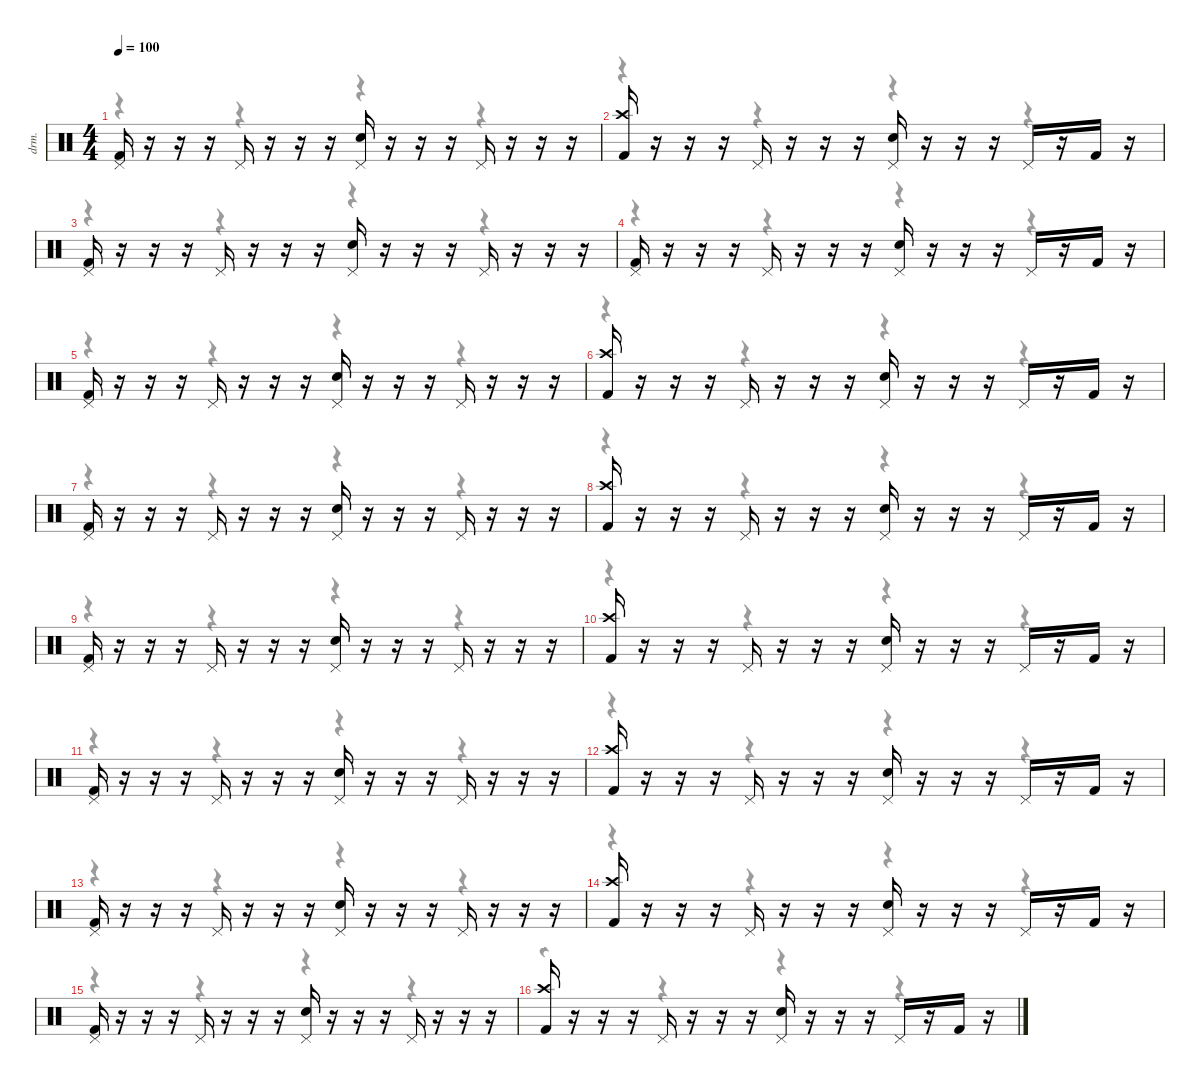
\defaultSystemsLayout 4
\hideDynamics
\bracketExtendMode nobrackets
\otherSystemsTrackNameOrientation horizontal
\track ("Drums" "drm.") {instrument percussion}
\staff {score}
\articulation defaults
\voice
\ts (4 4)
\tempo 100
\clef neutral
\ks c
("Kick (hit) 2" "Pedal Hi-Hat (hit)").16{dy ff} r.16 r.16 r.16 "Pedal Hi-Hat (hit)".16 r.16 r.16 r.16 ("Snare (hit) 2" "Pedal Hi-Hat (hit)").16 r.16 r.16 r.16 "Pedal Hi-Hat (hit)".16 r.16 r.16 r.16 |
("Kick (hit) 2" "Crash high (hit)").16 r.16 r.16 r.16 "Pedal Hi-Hat (hit)".16 r.16 r.16 r.16 ("Snare (hit) 2" "Pedal Hi-Hat (hit)").16 r.16 r.16 r.16 "Pedal Hi-Hat (hit)".16 r.16 "Kick (hit) 2".16{dy f} r.16 |
("Kick (hit) 2" "Pedal Hi-Hat (hit)").16{dy ff} r.16 r.16 r.16 "Pedal Hi-Hat (hit)".16 r.16 r.16 r.16 ("Snare (hit) 2" "Pedal Hi-Hat (hit)").16 r.16 r.16 r.16 "Pedal Hi-Hat (hit)".16 r.16 r.16 r.16 |
("Kick (hit) 2" "Pedal Hi-Hat (hit)").16 r.16 r.16 r.16 "Pedal Hi-Hat (hit)".16 r.16 r.16 r.16 ("Snare (hit) 2" "Pedal Hi-Hat (hit)").16 r.16 r.16 r.16 "Pedal Hi-Hat (hit)".16 r.16 "Kick (hit) 2".16{dy f} r.16 |
("Kick (hit) 2" "Pedal Hi-Hat (hit)").16{dy ff} r.16 r.16 r.16 "Pedal Hi-Hat (hit)".16 r.16 r.16 r.16 ("Snare (hit) 2" "Pedal Hi-Hat (hit)").16 r.16 r.16 r.16 "Pedal Hi-Hat (hit)".16 r.16 r.16 r.16 |
("Kick (hit) 2" "Crash high (hit)").16 r.16 r.16 r.16 "Pedal Hi-Hat (hit)".16 r.16 r.16 r.16 ("Snare (hit) 2" "Pedal Hi-Hat (hit)").16 r.16 r.16 r.16 "Pedal Hi-Hat (hit)".16 r.16 "Kick (hit) 2".16{dy f} r.16 |
("Kick (hit) 2" "Pedal Hi-Hat (hit)").16{dy ff} r.16 r.16 r.16 "Pedal Hi-Hat (hit)".16 r.16 r.16 r.16 ("Snare (hit) 2" "Pedal Hi-Hat (hit)").16 r.16 r.16 r.16 "Pedal Hi-Hat (hit)".16 r.16 r.16 r.16 |
("Kick (hit) 2" "Crash high (hit)").16 r.16 r.16 r.16 "Pedal Hi-Hat (hit)".16 r.16 r.16 r.16 ("Snare (hit) 2" "Pedal Hi-Hat (hit)").16 r.16 r.16 r.16 "Pedal Hi-Hat (hit)".16 r.16 "Kick (hit) 2".16{dy f} r.16 |
("Kick (hit) 2" "Pedal Hi-Hat (hit)").16{dy ff} r.16 r.16 r.16 "Pedal Hi-Hat (hit)".16 r.16 r.16 r.16 ("Snare (hit) 2" "Pedal Hi-Hat (hit)").16 r.16 r.16 r.16 "Pedal Hi-Hat (hit)".16 r.16 r.16 r.16 |
("Kick (hit) 2" "Crash high (hit)").16 r.16 r.16 r.16 "Pedal Hi-Hat (hit)".16 r.16 r.16 r.16 ("Snare (hit) 2" "Pedal Hi-Hat (hit)").16 r.16 r.16 r.16 "Pedal Hi-Hat (hit)".16 r.16 "Kick (hit) 2".16{dy f} r.16 |
("Kick (hit) 2" "Pedal Hi-Hat (hit)").16{dy ff} r.16 r.16 r.16 "Pedal Hi-Hat (hit)".16 r.16 r.16 r.16 ("Snare (hit) 2" "Pedal Hi-Hat (hit)").16 r.16 r.16 r.16 "Pedal Hi-Hat (hit)".16 r.16 r.16 r.16 |
("Kick (hit) 2" "Crash high (hit)").16 r.16 r.16 r.16 "Pedal Hi-Hat (hit)".16 r.16 r.16 r.16 ("Snare (hit) 2" "Pedal Hi-Hat (hit)").16 r.16 r.16 r.16 "Pedal Hi-Hat (hit)".16 r.16 "Kick (hit) 2".16{dy f} r.16 |
("Kick (hit) 2" "Pedal Hi-Hat (hit)").16{dy ff} r.16 r.16 r.16 "Pedal Hi-Hat (hit)".16 r.16 r.16 r.16 ("Snare (hit) 2" "Pedal Hi-Hat (hit)").16 r.16 r.16 r.16 "Pedal Hi-Hat (hit)".16 r.16 r.16 r.16 |
("Kick (hit) 2" "Crash high (hit)").16 r.16 r.16 r.16 "Pedal Hi-Hat (hit)".16 r.16 r.16 r.16 ("Snare (hit) 2" "Pedal Hi-Hat (hit)").16 r.16 r.16 r.16 "Pedal Hi-Hat (hit)".16 r.16 "Kick (hit) 2".16{dy f} r.16 |
("Kick (hit) 2" "Pedal Hi-Hat (hit)").16{dy ff} r.16 r.16 r.16 "Pedal Hi-Hat (hit)".16 r.16 r.16 r.16 ("Snare (hit) 2" "Pedal Hi-Hat (hit)").16 r.16 r.16 r.16 "Pedal Hi-Hat (hit)".16 r.16 r.16 r.16 |
("Kick (hit) 2" "Crash high (hit)").16 r.16 r.16 r.16 "Pedal Hi-Hat (hit)".16 r.16 r.16 r.16 ("Snare (hit) 2" "Pedal Hi-Hat (hit)").16 r.16 r.16 r.16 "Pedal Hi-Hat (hit)".16 r.16 "Kick (hit) 2".16{dy f} r.16
\voice
\clef neutral
\ottava regular
\simile none
\ks c
r.4{dy mf} r.4 r.4 r.4 |
r.4 r.4 r.4 r.4 |
r.4 r.4 r.4 r.4 |
r.4 r.4 r.4 r.4 |
r.4 r.4 r.4 r.4 |
r.4 r.4 r.4 r.4 |
r.4 r.4 r.4 r.4 |
r.4 r.4 r.4 r.4 |
r.4 r.4 r.4 r.4 |
r.4 r.4 r.4 r.4 |
r.4 r.4 r.4 r.4 |
r.4 r.4 r.4 r.4 |
r.4 r.4 r.4 r.4 |
r.4 r.4 r.4 r.4 |
r.4 r.4 r.4 r.4 |
r.4 r.4 r.4 r.4
